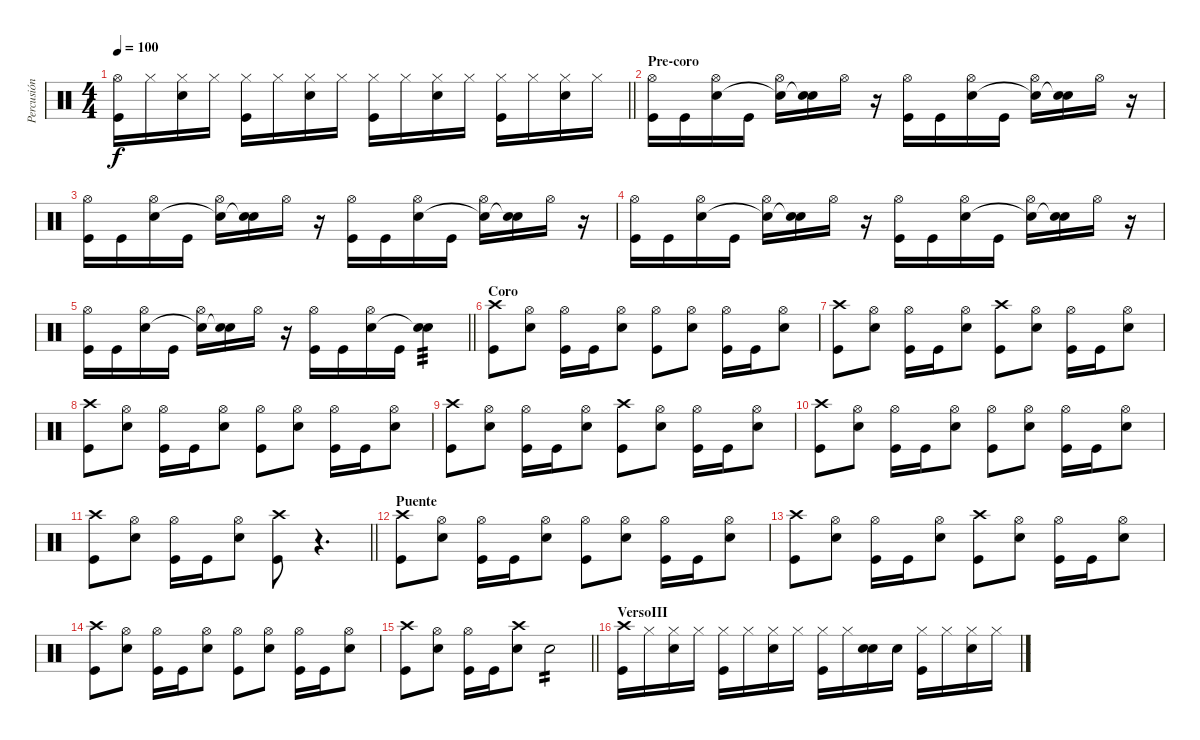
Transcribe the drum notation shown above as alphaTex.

\track ("Percusión" "Percusión") {instrument percussion}
\staff {score}
\articulation defaults
\ts (4 4)
\tempo 100
\clef neutral
\barLineRight lightlight
\ks c
("Hi-Hat (open)" "Kick (hit)").16{dy f} "Hi-Hat (closed)".16 ("Hi-Hat (closed)" "Electric Snare (hit)").16 "Hi-Hat (closed)".16 ("Hi-Hat (closed)" "Kick (hit)").16 "Hi-Hat (closed)".16 ("Hi-Hat (closed)" "Electric Snare (hit)").16 "Hi-Hat (closed)".16 ("Hi-Hat (closed)" "Kick (hit)").16 "Hi-Hat (closed)".16 ("Hi-Hat (closed)" "Electric Snare (hit)").16 "Hi-Hat (closed)".16 ("Hi-Hat (closed)" "Kick (hit)").16 "Hi-Hat (closed)".16 ("Hi-Hat (closed)" "Electric Snare (hit)").16 "Hi-Hat (closed)".16 |
\section ("" "Pre-coro")
("Hi-Hat (open)" "Kick (hit)").16 "Kick (hit)".16 ("Hi-Hat (open)" "Electric Snare (hit)").16 "Kick (hit)".16 ("Hi-Hat (open)" "Snare (hit)"{t}).16 ("Electric Snare (hit)" "Snare (hit)"{t}).16 "Hi-Hat (open)".16 r.16 ("Hi-Hat (open)" "Kick (hit)").16 "Kick (hit)".16 ("Hi-Hat (open)" "Electric Snare (hit)").16 "Kick (hit)".16 ("Hi-Hat (open)" "Snare (hit)"{t}).16 ("Electric Snare (hit)" "Snare (hit)"{t}).16 "Hi-Hat (open)".16 r.16 |
("Hi-Hat (open)" "Kick (hit)").16 "Kick (hit)".16 ("Hi-Hat (open)" "Electric Snare (hit)").16 "Kick (hit)".16 ("Hi-Hat (open)" "Snare (hit)"{t}).16 ("Electric Snare (hit)" "Snare (hit)"{t}).16 "Hi-Hat (open)".16 r.16 ("Hi-Hat (open)" "Kick (hit)").16 "Kick (hit)".16 ("Hi-Hat (open)" "Electric Snare (hit)").16 "Kick (hit)".16 ("Hi-Hat (open)" "Snare (hit)"{t}).16 ("Electric Snare (hit)" "Snare (hit)"{t}).16 "Hi-Hat (open)".16 r.16 |
("Hi-Hat (open)" "Kick (hit)").16 "Kick (hit)".16 ("Hi-Hat (open)" "Electric Snare (hit)").16 "Kick (hit)".16 ("Hi-Hat (open)" "Snare (hit)"{t}).16 ("Electric Snare (hit)" "Snare (hit)"{t}).16 "Hi-Hat (open)".16 r.16 ("Hi-Hat (open)" "Kick (hit)").16 "Kick (hit)".16 ("Hi-Hat (open)" "Electric Snare (hit)").16 "Kick (hit)".16 ("Hi-Hat (open)" "Snare (hit)"{t}).16 ("Electric Snare (hit)" "Snare (hit)"{t}).16 "Hi-Hat (open)".16 r.16 |
\barLineRight lightlight
("Hi-Hat (open)" "Kick (hit)").16 "Kick (hit)".16 ("Hi-Hat (open)" "Electric Snare (hit)").16 "Kick (hit)".16 ("Hi-Hat (open)" "Snare (hit)"{t}).16 ("Electric Snare (hit)" "Snare (hit)"{t}).16 "Hi-Hat (open)".16 r.16 ("Hi-Hat (open)" "Kick (hit)").16 "Kick (hit)".16 ("Hi-Hat (open)" "Electric Snare (hit)").16 "Kick (hit)".16 ("Electric Snare (hit)" "Snare (hit)"{t}).4{tp 3} |
\section ("" "Coro")
("Crash high (hit)" "Kick (hit)").8 ("Hi-Hat (open)" "Electric Snare (hit)").8 ("Hi-Hat (open)" "Kick (hit)").16 "Kick (hit)".16 ("Hi-Hat (open)" "Electric Snare (hit)").8 ("Hi-Hat (open)" "Kick (hit)").8 ("Hi-Hat (open)" "Electric Snare (hit)").8 ("Hi-Hat (open)" "Kick (hit)").16 "Kick (hit)".16 ("Hi-Hat (open)" "Electric Snare (hit)").8 |
("Crash high (hit)" "Kick (hit)").8 ("Hi-Hat (open)" "Electric Snare (hit)").8 ("Hi-Hat (open)" "Kick (hit)").16 "Kick (hit)".16 ("Hi-Hat (open)" "Electric Snare (hit)").8 ("Crash high (hit)" "Kick (hit)").8 ("Hi-Hat (open)" "Electric Snare (hit)").8 ("Hi-Hat (open)" "Kick (hit)").16 "Kick (hit)".16 ("Hi-Hat (open)" "Electric Snare (hit)").8 |
("Crash high (hit)" "Kick (hit)").8 ("Hi-Hat (open)" "Electric Snare (hit)").8 ("Hi-Hat (open)" "Kick (hit)").16 "Kick (hit)".16 ("Hi-Hat (open)" "Electric Snare (hit)").8 ("Hi-Hat (open)" "Kick (hit)").8 ("Hi-Hat (open)" "Electric Snare (hit)").8 ("Hi-Hat (open)" "Kick (hit)").16 "Kick (hit)".16 ("Hi-Hat (open)" "Electric Snare (hit)").8 |
("Crash high (hit)" "Kick (hit)").8 ("Hi-Hat (open)" "Electric Snare (hit)").8 ("Hi-Hat (open)" "Kick (hit)").16 "Kick (hit)".16 ("Hi-Hat (open)" "Electric Snare (hit)").8 ("Crash high (hit)" "Kick (hit)").8 ("Hi-Hat (open)" "Electric Snare (hit)").8 ("Hi-Hat (open)" "Kick (hit)").16 "Kick (hit)".16 ("Hi-Hat (open)" "Electric Snare (hit)").8 |
("Crash high (hit)" "Kick (hit)").8 ("Hi-Hat (open)" "Electric Snare (hit)").8 ("Hi-Hat (open)" "Kick (hit)").16 "Kick (hit)".16 ("Hi-Hat (open)" "Electric Snare (hit)").8 ("Hi-Hat (open)" "Kick (hit)").8 ("Hi-Hat (open)" "Electric Snare (hit)").8 ("Hi-Hat (open)" "Kick (hit)").16 "Kick (hit)".16 ("Hi-Hat (open)" "Electric Snare (hit)").8 |
\barLineRight lightlight
("Crash high (hit)" "Kick (hit)").8 ("Hi-Hat (open)" "Electric Snare (hit)").8 ("Hi-Hat (open)" "Kick (hit)").16 "Kick (hit)".16 ("Hi-Hat (open)" "Electric Snare (hit)").8 ("Crash high (hit)" "Kick (hit)").8 r.4{d} |
\section ("" "Puente")
("Crash high (hit)" "Kick (hit)").8 ("Hi-Hat (open)" "Electric Snare (hit)").8 ("Hi-Hat (open)" "Kick (hit)").16 "Kick (hit)".16 ("Hi-Hat (open)" "Electric Snare (hit)").8 ("Hi-Hat (open)" "Kick (hit)").8 ("Hi-Hat (open)" "Electric Snare (hit)").8 ("Hi-Hat (open)" "Kick (hit)").16 "Kick (hit)".16 ("Hi-Hat (open)" "Electric Snare (hit)").8 |
("Crash high (hit)" "Kick (hit)").8 ("Hi-Hat (open)" "Electric Snare (hit)").8 ("Hi-Hat (open)" "Kick (hit)").16 "Kick (hit)".16 ("Hi-Hat (open)" "Electric Snare (hit)").8 ("Crash high (hit)" "Kick (hit)").8 ("Hi-Hat (open)" "Electric Snare (hit)").8 ("Hi-Hat (open)" "Kick (hit)").16 "Kick (hit)".16 ("Hi-Hat (open)" "Electric Snare (hit)").8 |
("Crash high (hit)" "Kick (hit)").8 ("Hi-Hat (open)" "Electric Snare (hit)").8 ("Hi-Hat (open)" "Kick (hit)").16 "Kick (hit)".16 ("Hi-Hat (open)" "Electric Snare (hit)").8 ("Hi-Hat (open)" "Kick (hit)").8 ("Hi-Hat (open)" "Electric Snare (hit)").8 ("Hi-Hat (open)" "Kick (hit)").16 "Kick (hit)".16 ("Hi-Hat (open)" "Electric Snare (hit)").8 |
\barLineRight lightlight
("Crash high (hit)" "Kick (hit)").8 ("Hi-Hat (open)" "Electric Snare (hit)").8 ("Hi-Hat (open)" "Kick (hit)").16 "Kick (hit)".16 ("Crash high (hit)" "Electric Snare (hit)").8 "Electric Snare (hit)".2{tp 2} |
\section ("" "VersoIII")
("Crash high (hit)" "Kick (hit)").16 "Hi-Hat (closed)".16 ("Hi-Hat (closed)" "Electric Snare (hit)").16 "Hi-Hat (closed)".16 ("Hi-Hat (closed)" "Kick (hit)").16 "Hi-Hat (closed)".16 ("Hi-Hat (closed)" "Electric Snare (hit)").16 "Hi-Hat (closed)".16 ("Hi-Hat (closed)" "Kick (hit)").16 "Hi-Hat (closed)".16 ("Snare (hit)" "Electric Snare (hit)").16 "Snare (hit)".16 ("Hi-Hat (closed)" "Kick (hit)").16 "Hi-Hat (closed)".16 ("Hi-Hat (closed)" "Electric Snare (hit)").16 "Hi-Hat (closed)".16
